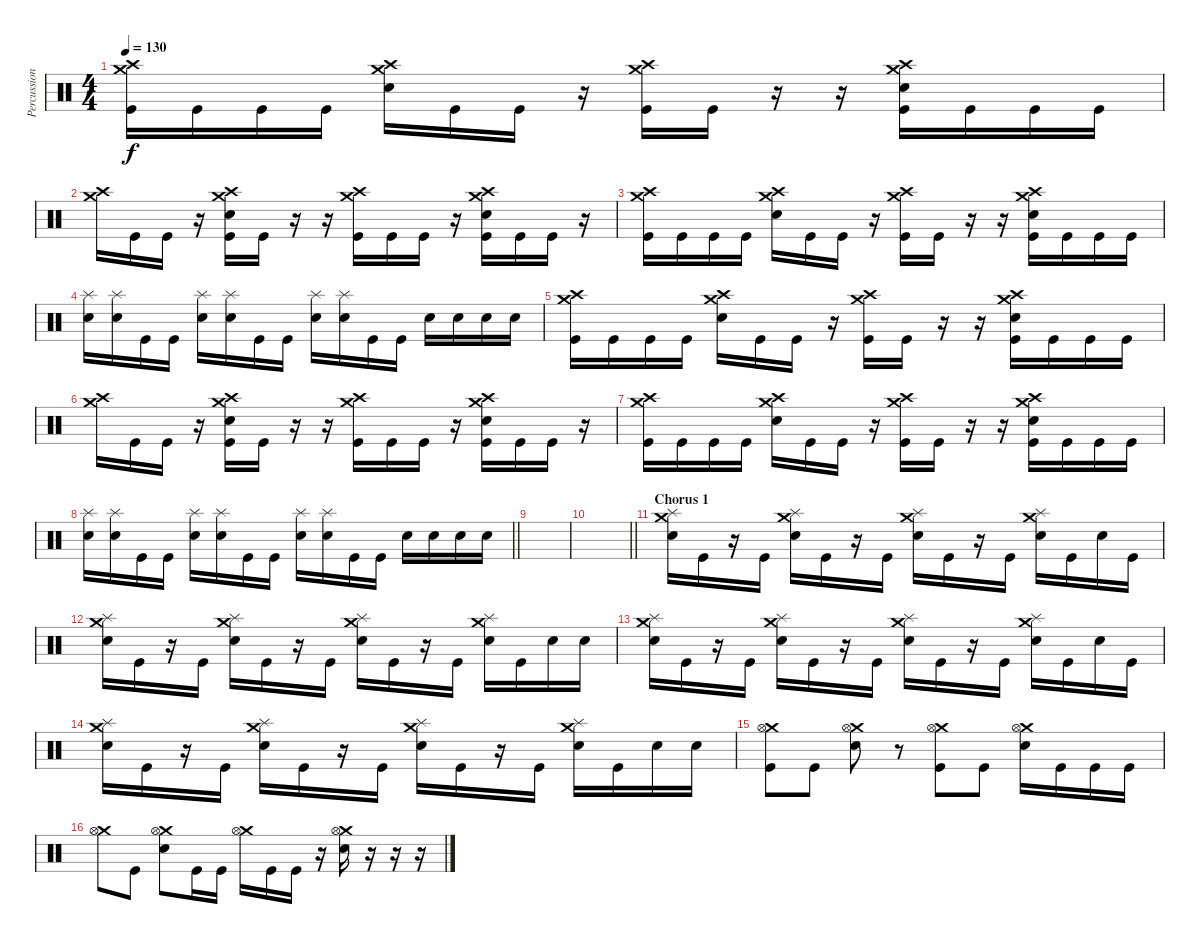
\track ("Percussion (Approx.)" "Percussion") {instrument percussion}
\staff {score}
\articulation defaults
\ts (4 4)
\section ("" "")
\tempo 130
\clef neutral
\ks c
("Crash medium (hit)" "Crash high (hit)" "Kick (hit)").16{dy f} "Kick (hit)".16 "Kick (hit)".16 "Kick (hit)".16 ("Crash medium (hit)" "Crash high (hit)" "Electric Snare (hit)").16 "Kick (hit)".16 "Kick (hit)".16 r.16 ("Crash medium (hit)" "Crash high (hit)" "Kick (hit)").16 "Kick (hit)".16 r.16 r.16 ("Crash medium (hit)" "Crash high (hit)" "Electric Snare (hit)" "Kick (hit)").16 "Kick (hit)".16 "Kick (hit)".16 "Kick (hit)".16 |
("Crash medium (hit)" "Crash high (hit)").16 "Kick (hit)".16 "Kick (hit)".16 r.16 ("Crash medium (hit)" "Crash high (hit)" "Electric Snare (hit)" "Kick (hit)").16 "Kick (hit)".16 r.16 r.16 ("Crash medium (hit)" "Crash high (hit)" "Kick (hit)").16 "Kick (hit)".16 "Kick (hit)".16 r.16 ("Crash medium (hit)" "Crash high (hit)" "Electric Snare (hit)" "Kick (hit)").16 "Kick (hit)".16 "Kick (hit)".16 r.16 |
("Crash medium (hit)" "Crash high (hit)" "Kick (hit)").16 "Kick (hit)".16 "Kick (hit)".16 "Kick (hit)".16 ("Crash medium (hit)" "Crash high (hit)" "Electric Snare (hit)").16 "Kick (hit)".16 "Kick (hit)".16 r.16 ("Crash medium (hit)" "Crash high (hit)" "Kick (hit)").16 "Kick (hit)".16 r.16 r.16 ("Crash medium (hit)" "Crash high (hit)" "Electric Snare (hit)" "Kick (hit)").16 "Kick (hit)".16 "Kick (hit)".16 "Kick (hit)".16 |
("Splash (hit)" "Electric Snare (hit)").16 ("Splash (hit)" "Electric Snare (hit)").16 "Kick (hit)".16 "Kick (hit)".16 ("Splash (hit)" "Electric Snare (hit)").16 ("Splash (hit)" "Electric Snare (hit)").16 "Kick (hit)".16 "Kick (hit)".16 ("Splash (hit)" "Electric Snare (hit)").16 ("Splash (hit)" "Electric Snare (hit)").16 "Kick (hit)".16 "Kick (hit)".16 "Electric Snare (hit)".16 "Electric Snare (hit)".16 "Electric Snare (hit)".16 "Electric Snare (hit)".16 |
("Crash medium (hit)" "Crash high (hit)" "Kick (hit)").16 "Kick (hit)".16 "Kick (hit)".16 "Kick (hit)".16 ("Crash medium (hit)" "Crash high (hit)" "Electric Snare (hit)").16 "Kick (hit)".16 "Kick (hit)".16 r.16 ("Crash medium (hit)" "Crash high (hit)" "Kick (hit)").16 "Kick (hit)".16 r.16 r.16 ("Crash medium (hit)" "Crash high (hit)" "Electric Snare (hit)" "Kick (hit)").16 "Kick (hit)".16 "Kick (hit)".16 "Kick (hit)".16 |
("Crash medium (hit)" "Crash high (hit)").16 "Kick (hit)".16 "Kick (hit)".16 r.16 ("Crash medium (hit)" "Crash high (hit)" "Electric Snare (hit)" "Kick (hit)").16 "Kick (hit)".16 r.16 r.16 ("Crash medium (hit)" "Crash high (hit)" "Kick (hit)").16 "Kick (hit)".16 "Kick (hit)".16 r.16 ("Crash medium (hit)" "Crash high (hit)" "Electric Snare (hit)" "Kick (hit)").16 "Kick (hit)".16 "Kick (hit)".16 r.16 |
("Crash medium (hit)" "Crash high (hit)" "Kick (hit)").16 "Kick (hit)".16 "Kick (hit)".16 "Kick (hit)".16 ("Crash medium (hit)" "Crash high (hit)" "Electric Snare (hit)").16 "Kick (hit)".16 "Kick (hit)".16 r.16 ("Crash medium (hit)" "Crash high (hit)" "Kick (hit)").16 "Kick (hit)".16 r.16 r.16 ("Crash medium (hit)" "Crash high (hit)" "Electric Snare (hit)" "Kick (hit)").16 "Kick (hit)".16 "Kick (hit)".16 "Kick (hit)".16 |
\barLineRight lightlight
("Splash (hit)" "Electric Snare (hit)").16 ("Splash (hit)" "Electric Snare (hit)").16 "Kick (hit)".16 "Kick (hit)".16 ("Splash (hit)" "Electric Snare (hit)").16 ("Splash (hit)" "Electric Snare (hit)").16 "Kick (hit)".16 "Kick (hit)".16 ("Splash (hit)" "Electric Snare (hit)").16 ("Splash (hit)" "Electric Snare (hit)").16 "Kick (hit)".16 "Kick (hit)".16 "Electric Snare (hit)".16 "Electric Snare (hit)".16 "Electric Snare (hit)".16 "Electric Snare (hit)".16 |
\section ("" "")
|
\barLineRight lightlight
|
\section ("" "Chorus 1")
("Crash medium (hit)" "Splash (hit)" "Electric Snare (hit)").16 "Kick (hit)".16 r.16 "Kick (hit)".16 ("Crash medium (hit)" "Splash (hit)" "Electric Snare (hit)").16 "Kick (hit)".16 r.16 "Kick (hit)".16 ("Crash medium (hit)" "Splash (hit)" "Electric Snare (hit)").16 "Kick (hit)".16 r.16 "Kick (hit)".16 ("Crash medium (hit)" "Splash (hit)" "Electric Snare (hit)").16 "Kick (hit)".16 "Electric Snare (hit)".16 "Kick (hit)".16 |
("Crash medium (hit)" "Splash (hit)" "Electric Snare (hit)").16 "Kick (hit)".16 r.16 "Kick (hit)".16 ("Crash medium (hit)" "Splash (hit)" "Electric Snare (hit)").16 "Kick (hit)".16 r.16 "Kick (hit)".16 ("Crash medium (hit)" "Splash (hit)" "Electric Snare (hit)").16 "Kick (hit)".16 r.16 "Kick (hit)".16 ("Crash medium (hit)" "Splash (hit)" "Electric Snare (hit)").16 "Kick (hit)".16 "Electric Snare (hit)".16 "Electric Snare (hit)".16 |
("Crash medium (hit)" "Splash (hit)" "Electric Snare (hit)").16 "Kick (hit)".16 r.16 "Kick (hit)".16 ("Crash medium (hit)" "Splash (hit)" "Electric Snare (hit)").16 "Kick (hit)".16 r.16 "Kick (hit)".16 ("Crash medium (hit)" "Splash (hit)" "Electric Snare (hit)").16 "Kick (hit)".16 r.16 "Kick (hit)".16 ("Crash medium (hit)" "Splash (hit)" "Electric Snare (hit)").16 "Kick (hit)".16 "Electric Snare (hit)".16 "Kick (hit)".16 |
("Crash medium (hit)" "Splash (hit)" "Electric Snare (hit)").16 "Kick (hit)".16 r.16 "Kick (hit)".16 ("Crash medium (hit)" "Splash (hit)" "Electric Snare (hit)").16 "Kick (hit)".16 r.16 "Kick (hit)".16 ("Crash medium (hit)" "Splash (hit)" "Electric Snare (hit)").16 "Kick (hit)".16 r.16 "Kick (hit)".16 ("Crash medium (hit)" "Splash (hit)" "Electric Snare (hit)").16 "Kick (hit)".16 "Electric Snare (hit)".16 "Electric Snare (hit)".16 |
("Crash medium (hit)" "Hi-Hat (open)" "Kick (hit)").8 "Kick (hit)".8 ("Crash medium (hit)" "Hi-Hat (open)" "Electric Snare (hit)").8 r.8 ("Crash medium (hit)" "Hi-Hat (open)" "Kick (hit)").8 "Kick (hit)".8 ("Crash medium (hit)" "Hi-Hat (open)" "Electric Snare (hit)").16 "Kick (hit)".16 "Kick (hit)".16 "Kick (hit)".16 |
("Crash medium (hit)" "Hi-Hat (open)").8 "Kick (hit)".8 ("Crash medium (hit)" "Hi-Hat (open)" "Electric Snare (hit)").8 "Kick (hit)".16 "Kick (hit)".16 ("Crash medium (hit)" "Hi-Hat (open)").16 "Kick (hit)".16 "Kick (hit)".16 r.16 ("Crash medium (hit)" "Hi-Hat (open)" "Electric Snare (hit)").16 r.16 r.16 r.16
